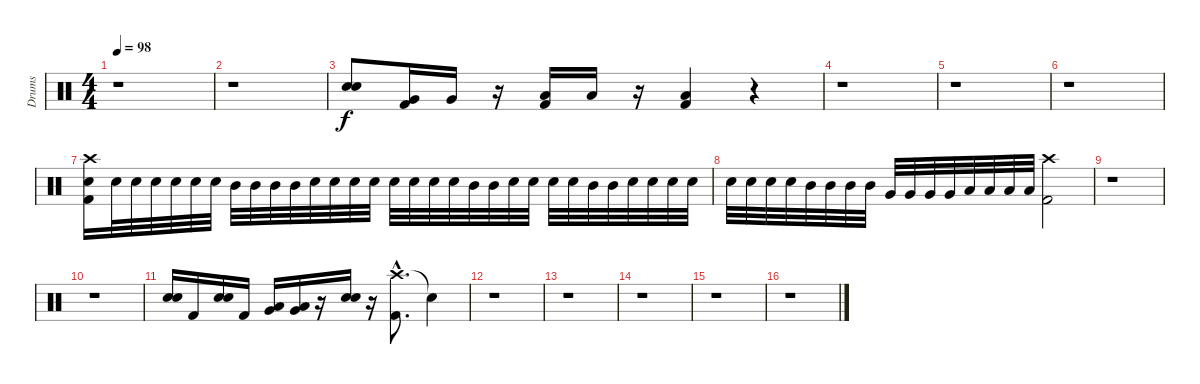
\track ("Drums" "Drums") {instrument percussion}
\staff {score}
\articulation defaults
\ts (4 4)
\tempo 98
\clef neutral
\ks c
r.1{dy f} |
r.1 |
("Snare (hit) 2" "Snare (hit) 2").8 ("Very Low Tom (hit)" "Kick (hit) 2").16 "Very Low Tom (hit)".16 r.16 ("Low Floor Tom (hit)" "Kick (hit) 2").16 "Low Floor Tom (hit)".16 r.16 ("Low Floor Tom (hit)" "Kick (hit) 2").4 r.4 |
r.1 |
r.1 |
r.1 |
("Crash high (hit)" "Snare (hit) 2" "Kick (hit) 2").16 "Snare (hit) 2".32 "Snare (hit) 2".32 "Snare (hit) 2".32 "Snare (hit) 2".32 "Snare (hit) 2".32 "Snare (hit) 2".32 "Mid Tom (hit)".32 "Mid Tom (hit)".32 "Mid Tom (hit)".32 "Mid Tom (hit)".32 "Snare (hit) 2".32 "Snare (hit) 2".32 "Snare (hit) 2".32 "Snare (hit) 2".32 "Snare (hit) 2".32 "Snare (hit) 2".32 "Snare (hit) 2".32 "Snare (hit) 2".32 "Mid Tom (hit)".32 "Mid Tom (hit)".32 "Snare (hit) 2".32 "Snare (hit) 2".32 "Snare (hit) 2".32 "Snare (hit) 2".32 "Mid Tom (hit)".32 "Mid Tom (hit)".32 "Snare (hit) 2".32 "Snare (hit) 2".32 "Snare (hit) 2".32 "Snare (hit) 2".32 |
"Snare (hit) 2".32 "Snare (hit) 2".32 "Snare (hit) 2".32 "Snare (hit) 2".32 "Mid Tom (hit)".32 "Mid Tom (hit)".32 "Mid Tom (hit)".32 "Mid Tom (hit)".32 "Very Low Tom (hit)".32 "Very Low Tom (hit)".32 "Very Low Tom (hit)".32 "Very Low Tom (hit)".32 "Low Floor Tom (hit)".32 "Low Floor Tom (hit)".32 "Low Floor Tom (hit)".32 "Low Floor Tom (hit)".32 ("Crash high (hit)" "Kick (hit) 2").2 |
r.1 |
r.1 |
("Snare (hit) 2" "Snare (hit) 2").16 "Kick (hit) 2".16 ("Snare (hit) 2" "Snare (hit) 2").16 "Kick (hit) 2".16 ("Very Low Tom (hit)" "Low Floor Tom (hit)").16 ("Very Low Tom (hit)" "Low Floor Tom (hit)").16 r.16 ("Snare (hit) 2" "Snare (hit) 2").16 r.16 ("Crash high (hit)"{hac} "Kick (hit) 2"{hac}).8{d} "Snare (hit)"{t}.4 |
r.1 |
r.1 |
r.1 |
r.1 |
r.1
